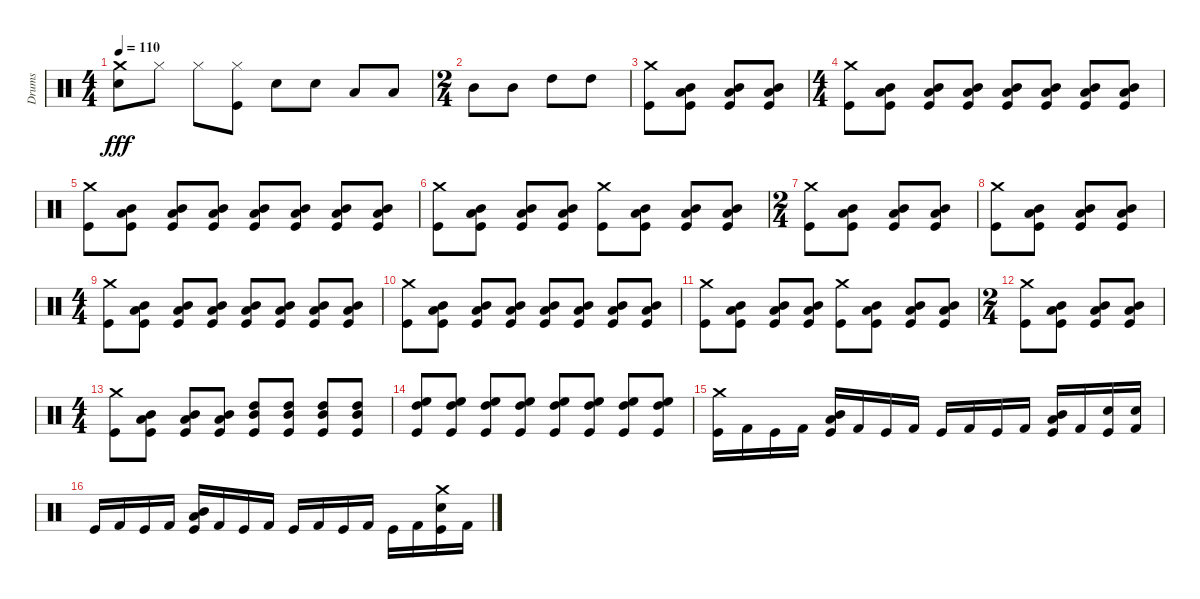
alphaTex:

\track ("Drums" "Drums") {instrument percussion}
\staff {score}
\articulation defaults
\ts (4 4)
\tempo 110
\clef neutral
\ks c
("Crash medium (hit)" "Snare (hit) 2").8{dy fff} "Hi-Hat (closed)".8 "Hi-Hat (closed)".8 ("Kick (hit)" "Hi-Hat (closed)").8 "Snare (hit) 2".8 "Snare (hit) 2".8 "Low Tom (hit)".8 "Low Tom (hit)".8 |
\ts (2 4)
"Mid Tom (hit)".8 "Mid Tom (hit)".8 "High Tom (hit)".8 "High Tom (hit)".8 |
("Kick (hit)" "Crash medium (hit)").8 ("Kick (hit)" "Low Tom (hit)" "Mid Tom (hit)").8 ("Kick (hit)" "Mid Tom (hit)" "Low Tom (hit)").8 ("Kick (hit)" "Mid Tom (hit)" "Low Tom (hit)").8 |
\ts (4 4)
("Crash medium (hit)" "Kick (hit)").8 ("Low Tom (hit)" "Kick (hit)" "Mid Tom (hit)").8 ("Kick (hit)" "Mid Tom (hit)" "Low Tom (hit)").8 ("Kick (hit)" "Mid Tom (hit)" "Low Tom (hit)").8 ("Kick (hit)" "Mid Tom (hit)" "Low Tom (hit)").8 ("Mid Tom (hit)" "Kick (hit)" "Low Tom (hit)").8 ("Kick (hit)" "Mid Tom (hit)" "Low Tom (hit)").8 ("Kick (hit)" "Mid Tom (hit)" "Low Tom (hit)").8 |
("Kick (hit)" "Crash medium (hit)").8 ("Kick (hit)" "Mid Tom (hit)" "Low Tom (hit)").8 ("Low Tom (hit)" "Mid Tom (hit)" "Kick (hit)").8 ("Kick (hit)" "Mid Tom (hit)" "Low Tom (hit)").8 ("Kick (hit)" "Mid Tom (hit)" "Low Tom (hit)").8 ("Kick (hit)" "Mid Tom (hit)" "Low Tom (hit)").8 ("Low Tom (hit)" "Kick (hit)" "Mid Tom (hit)").8 ("Low Tom (hit)" "Kick (hit)" "Mid Tom (hit)").8 |
("Crash medium (hit)" "Kick (hit)").8 ("Mid Tom (hit)" "Low Tom (hit)" "Kick (hit)").8 ("Mid Tom (hit)" "Low Tom (hit)" "Kick (hit)").8 ("Low Tom (hit)" "Mid Tom (hit)" "Kick (hit)").8 ("Crash medium (hit)" "Kick (hit)").8 ("Kick (hit)" "Low Tom (hit)" "Mid Tom (hit)").8 ("Kick (hit)" "Low Tom (hit)" "Mid Tom (hit)").8 ("Kick (hit)" "Low Tom (hit)" "Mid Tom (hit)").8 |
\ts (2 4)
("Crash medium (hit)" "Kick (hit)").8 ("Low Tom (hit)" "Mid Tom (hit)" "Kick (hit)").8 ("Low Tom (hit)" "Mid Tom (hit)" "Kick (hit)").8 ("Low Tom (hit)" "Mid Tom (hit)" "Kick (hit)").8 |
("Crash medium (hit)" "Kick (hit)").8 ("Mid Tom (hit)" "Low Tom (hit)" "Kick (hit)").8 ("Kick (hit)" "Mid Tom (hit)" "Low Tom (hit)").8 ("Kick (hit)" "Mid Tom (hit)" "Low Tom (hit)").8 |
\ts (4 4)
("Kick (hit)" "Crash medium (hit)").8 ("Low Tom (hit)" "Kick (hit)" "Mid Tom (hit)").8 ("Low Tom (hit)" "Kick (hit)" "Mid Tom (hit)").8 ("Kick (hit)" "Mid Tom (hit)" "Low Tom (hit)").8 ("Kick (hit)" "Mid Tom (hit)" "Low Tom (hit)").8 ("Kick (hit)" "Mid Tom (hit)" "Low Tom (hit)").8 ("Mid Tom (hit)" "Kick (hit)" "Low Tom (hit)").8 ("Kick (hit)" "Mid Tom (hit)" "Low Tom (hit)").8 |
("Kick (hit)" "Crash medium (hit)").8 ("Low Tom (hit)" "Kick (hit)" "Mid Tom (hit)").8 ("Low Tom (hit)" "Kick (hit)" "Mid Tom (hit)").8 ("Low Tom (hit)" "Kick (hit)" "Mid Tom (hit)").8 ("Kick (hit)" "Mid Tom (hit)" "Low Tom (hit)").8 ("Kick (hit)" "Mid Tom (hit)" "Low Tom (hit)").8 ("Kick (hit)" "Low Tom (hit)" "Mid Tom (hit)").8 ("Mid Tom (hit)" "Low Tom (hit)" "Kick (hit)").8 |
("Crash medium (hit)" "Kick (hit)").8 ("Mid Tom (hit)" "Low Tom (hit)" "Kick (hit)").8 ("Mid Tom (hit)" "Low Tom (hit)" "Kick (hit)").8 ("Mid Tom (hit)" "Low Tom (hit)" "Kick (hit)").8 ("Kick (hit)" "Crash medium (hit)").8 ("Kick (hit)" "Low Tom (hit)" "Mid Tom (hit)").8 ("Low Tom (hit)" "Mid Tom (hit)" "Kick (hit)").8 ("Low Tom (hit)" "Mid Tom (hit)" "Kick (hit)").8 |
\ts (2 4)
("Crash medium (hit)" "Kick (hit)").8 ("Kick (hit)" "Low Tom (hit)" "Mid Tom (hit)").8 ("Kick (hit)" "Low Tom (hit)" "Mid Tom (hit)").8 ("Kick (hit)" "Low Tom (hit)" "Mid Tom (hit)").8 |
\ts (4 4)
("Kick (hit)" "Crash medium (hit)").8 ("Kick (hit)" "Low Tom (hit)" "Mid Tom (hit)").8 ("Low Tom (hit)" "Kick (hit)" "Mid Tom (hit)").8 ("Kick (hit)" "Low Tom (hit)" "Mid Tom (hit)").8 ("High Tom (hit)" "Mid Tom (hit)" "Kick (hit)").8 ("High Tom (hit)" "Mid Tom (hit)" "Kick (hit)").8 ("Mid Tom (hit)" "High Tom (hit)" "Kick (hit)").8 ("Kick (hit)" "High Tom (hit)" "Mid Tom (hit)").8 |
("Kick (hit)" "High Floor Tom (hit)" "High Tom (hit)").8 ("Kick (hit)" "High Tom (hit)" "High Floor Tom (hit)").8 ("Kick (hit)" "High Tom (hit)" "High Floor Tom (hit)").8 ("High Tom (hit)" "Kick (hit)" "High Floor Tom (hit)").8 ("Kick (hit)" "High Tom (hit)" "High Floor Tom (hit)").8 ("Kick (hit)" "High Tom (hit)" "High Floor Tom (hit)").8 ("Kick (hit)" "High Tom (hit)" "High Floor Tom (hit)").8 ("High Floor Tom (hit)" "Kick (hit)" "High Tom (hit)").8 |
("Kick (hit)" "Crash medium (hit)").16 "Kick (hit) 2".16 "Kick (hit)".16 "Kick (hit) 2".16 ("Kick (hit)" "Low Tom (hit)" "Mid Tom (hit)").16 "Kick (hit) 2".16 "Kick (hit)".16 "Kick (hit) 2".16 "Kick (hit)".16 "Kick (hit) 2".16 "Kick (hit)".16 "Kick (hit) 2".16 ("Kick (hit)" "Low Tom (hit)" "Mid Tom (hit)").16 "Kick (hit) 2".16 ("Kick (hit)" "Snare (hit) 2").16 ("Kick (hit) 2" "Snare (hit) 2").16 |
"Kick (hit)".16 "Kick (hit) 2".16 "Kick (hit)".16 "Kick (hit) 2".16 ("Low Tom (hit)" "Kick (hit)" "Mid Tom (hit)").16 "Kick (hit) 2".16 "Kick (hit)".16 "Kick (hit) 2".16 "Kick (hit)".16 "Kick (hit) 2".16 "Kick (hit)".16 "Kick (hit) 2".16 "Kick (hit)".16 "Kick (hit) 2".16 ("Crash medium (hit)" "Snare (hit) 2" "Kick (hit)").16 "Kick (hit) 2".16
